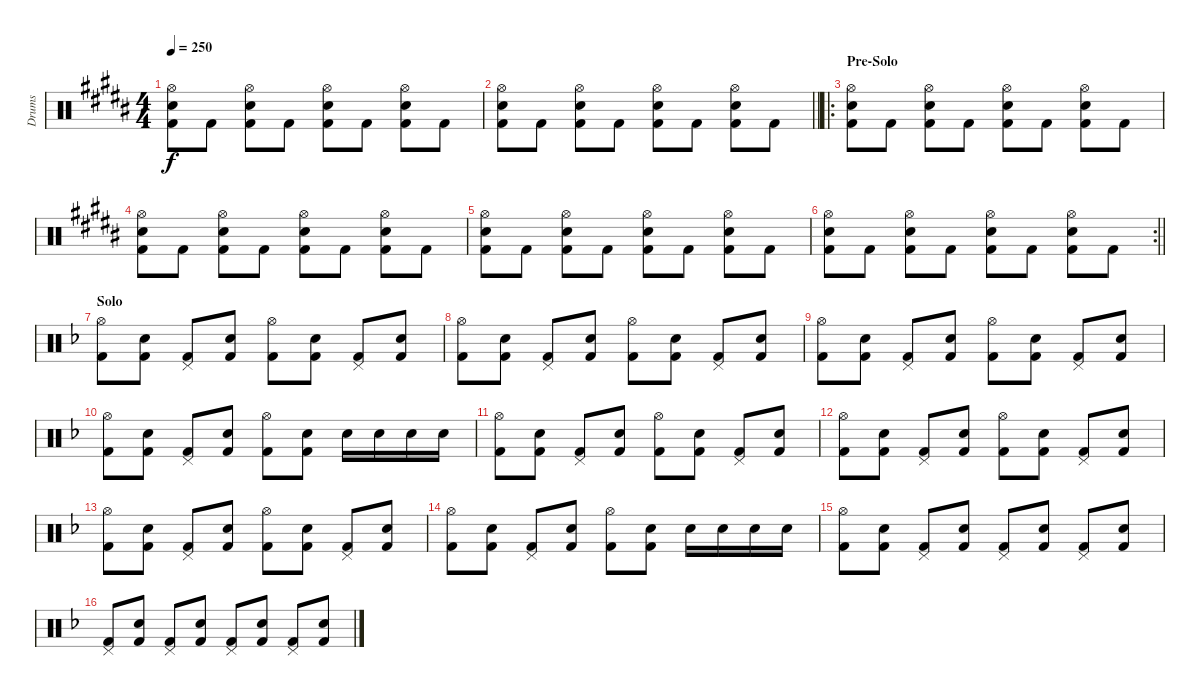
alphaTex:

\track ("Drums" "Drums") {instrument percussion}
\staff {score}
\articulation defaults
\ts (4 4)
\tempo 250
\clef neutral
\ks b
("Hi-Hat (open)" "Snare (hit) 2" "Kick (hit) 2").8{dy f} "Kick (hit) 2".8 ("Hi-Hat (open)" "Snare (hit) 2" "Kick (hit) 2").8 "Kick (hit) 2".8 ("Hi-Hat (open)" "Snare (hit) 2" "Kick (hit) 2").8 "Kick (hit) 2".8 ("Hi-Hat (open)" "Snare (hit) 2" "Kick (hit) 2").8 "Kick (hit) 2".8 |
\barLineRight lightlight
\ks g#minor
("Hi-Hat (open)" "Snare (hit) 2" "Kick (hit) 2").8 "Kick (hit) 2".8 ("Hi-Hat (open)" "Snare (hit) 2" "Kick (hit) 2").8 "Kick (hit) 2".8 ("Hi-Hat (open)" "Snare (hit) 2" "Kick (hit) 2").8 "Kick (hit) 2".8 ("Hi-Hat (open)" "Snare (hit) 2" "Kick (hit) 2").8 "Kick (hit) 2".8 |
\ro
\section ("" "Pre-Solo")
\ks b
("Hi-Hat (open)" "Snare (hit) 2" "Kick (hit) 2").8 "Kick (hit) 2".8 ("Hi-Hat (open)" "Snare (hit) 2" "Kick (hit) 2").8 "Kick (hit) 2".8 ("Hi-Hat (open)" "Snare (hit) 2" "Kick (hit) 2").8 "Kick (hit) 2".8 ("Hi-Hat (open)" "Snare (hit) 2" "Kick (hit) 2").8 "Kick (hit) 2".8 |
\ks g#minor
("Hi-Hat (open)" "Snare (hit) 2" "Kick (hit) 2").8 "Kick (hit) 2".8 ("Hi-Hat (open)" "Snare (hit) 2" "Kick (hit) 2").8 "Kick (hit) 2".8 ("Hi-Hat (open)" "Snare (hit) 2" "Kick (hit) 2").8 "Kick (hit) 2".8 ("Hi-Hat (open)" "Snare (hit) 2" "Kick (hit) 2").8 "Kick (hit) 2".8 |
\ks b
("Hi-Hat (open)" "Snare (hit) 2" "Kick (hit) 2").8 "Kick (hit) 2".8 ("Hi-Hat (open)" "Snare (hit) 2" "Kick (hit) 2").8 "Kick (hit) 2".8 ("Hi-Hat (open)" "Snare (hit) 2" "Kick (hit) 2").8 "Kick (hit) 2".8 ("Hi-Hat (open)" "Snare (hit) 2" "Kick (hit) 2").8 "Kick (hit) 2".8 |
\rc 2
\barLineRight lightlight
\ks g#minor
("Hi-Hat (open)" "Snare (hit) 2" "Kick (hit) 2").8 "Kick (hit) 2".8 ("Hi-Hat (open)" "Snare (hit) 2" "Kick (hit) 2").8 "Kick (hit) 2".8 ("Hi-Hat (open)" "Snare (hit) 2" "Kick (hit) 2").8 "Kick (hit) 2".8 ("Hi-Hat (open)" "Snare (hit) 2" "Kick (hit) 2").8 "Kick (hit) 2".8 |
\section ("" "Solo")
\ks f
("Hi-Hat (open)" "Kick (hit) 2").8 ("Snare (hit) 2" "Kick (hit) 2").8 ("Pedal Hi-Hat (hit)" "Kick (hit) 2").8 ("Snare (hit) 2" "Kick (hit) 2").8 ("Hi-Hat (open)" "Kick (hit) 2").8 ("Snare (hit) 2" "Kick (hit) 2").8 ("Pedal Hi-Hat (hit)" "Kick (hit) 2").8 ("Snare (hit) 2" "Kick (hit) 2").8 |
("Hi-Hat (open)" "Kick (hit) 2").8 ("Snare (hit) 2" "Kick (hit) 2").8 ("Pedal Hi-Hat (hit)" "Kick (hit) 2").8 ("Snare (hit) 2" "Kick (hit) 2").8 ("Hi-Hat (open)" "Kick (hit) 2").8 ("Snare (hit) 2" "Kick (hit) 2").8 ("Pedal Hi-Hat (hit)" "Kick (hit) 2").8 ("Snare (hit) 2" "Kick (hit) 2").8 |
("Hi-Hat (open)" "Kick (hit) 2").8 ("Snare (hit) 2" "Kick (hit) 2").8 ("Pedal Hi-Hat (hit)" "Kick (hit) 2").8 ("Snare (hit) 2" "Kick (hit) 2").8 ("Hi-Hat (open)" "Kick (hit) 2").8 ("Snare (hit) 2" "Kick (hit) 2").8 ("Pedal Hi-Hat (hit)" "Kick (hit) 2").8 ("Snare (hit) 2" "Kick (hit) 2").8 |
("Hi-Hat (open)" "Kick (hit) 2").8 ("Snare (hit) 2" "Kick (hit) 2").8 ("Pedal Hi-Hat (hit)" "Kick (hit) 2").8 ("Snare (hit) 2" "Kick (hit) 2").8 ("Hi-Hat (open)" "Kick (hit) 2").8 ("Snare (hit) 2" "Kick (hit) 2").8 "Snare (hit) 2".16 "Snare (hit) 2".16 "Snare (hit) 2".16 "Snare (hit) 2".16 |
("Hi-Hat (open)" "Kick (hit) 2").8 ("Snare (hit) 2" "Kick (hit) 2").8 ("Pedal Hi-Hat (hit)" "Kick (hit) 2").8 ("Snare (hit) 2" "Kick (hit) 2").8 ("Hi-Hat (open)" "Kick (hit) 2").8 ("Snare (hit) 2" "Kick (hit) 2").8 ("Pedal Hi-Hat (hit)" "Kick (hit) 2").8 ("Snare (hit) 2" "Kick (hit) 2").8 |
("Hi-Hat (open)" "Kick (hit) 2").8 ("Snare (hit) 2" "Kick (hit) 2").8 ("Pedal Hi-Hat (hit)" "Kick (hit) 2").8 ("Snare (hit) 2" "Kick (hit) 2").8 ("Hi-Hat (open)" "Kick (hit) 2").8 ("Snare (hit) 2" "Kick (hit) 2").8 ("Pedal Hi-Hat (hit)" "Kick (hit) 2").8 ("Snare (hit) 2" "Kick (hit) 2").8 |
("Hi-Hat (open)" "Kick (hit) 2").8 ("Snare (hit) 2" "Kick (hit) 2").8 ("Pedal Hi-Hat (hit)" "Kick (hit) 2").8 ("Snare (hit) 2" "Kick (hit) 2").8 ("Hi-Hat (open)" "Kick (hit) 2").8 ("Snare (hit) 2" "Kick (hit) 2").8 ("Pedal Hi-Hat (hit)" "Kick (hit) 2").8 ("Snare (hit) 2" "Kick (hit) 2").8 |
("Hi-Hat (open)" "Kick (hit) 2").8 ("Snare (hit) 2" "Kick (hit) 2").8 ("Pedal Hi-Hat (hit)" "Kick (hit) 2").8 ("Snare (hit) 2" "Kick (hit) 2").8 ("Hi-Hat (open)" "Kick (hit) 2").8 ("Snare (hit) 2" "Kick (hit) 2").8 "Snare (hit) 2".16 "Snare (hit) 2".16 "Snare (hit) 2".16 "Snare (hit) 2".16 |
("Hi-Hat (open)" "Kick (hit) 2").8 ("Snare (hit) 2" "Kick (hit) 2").8 ("Pedal Hi-Hat (hit)" "Kick (hit) 2").8 ("Snare (hit) 2" "Kick (hit) 2").8 ("Pedal Hi-Hat (hit)" "Kick (hit) 2").8 ("Snare (hit) 2" "Kick (hit) 2").8 ("Pedal Hi-Hat (hit)" "Kick (hit) 2").8 ("Snare (hit) 2" "Kick (hit) 2").8 |
("Pedal Hi-Hat (hit)" "Kick (hit) 2").8 ("Snare (hit) 2" "Kick (hit) 2").8 ("Pedal Hi-Hat (hit)" "Kick (hit) 2").8 ("Snare (hit) 2" "Kick (hit) 2").8 ("Pedal Hi-Hat (hit)" "Kick (hit) 2").8 ("Snare (hit) 2" "Kick (hit) 2").8 ("Pedal Hi-Hat (hit)" "Kick (hit) 2").8 ("Snare (hit) 2" "Kick (hit) 2").8
